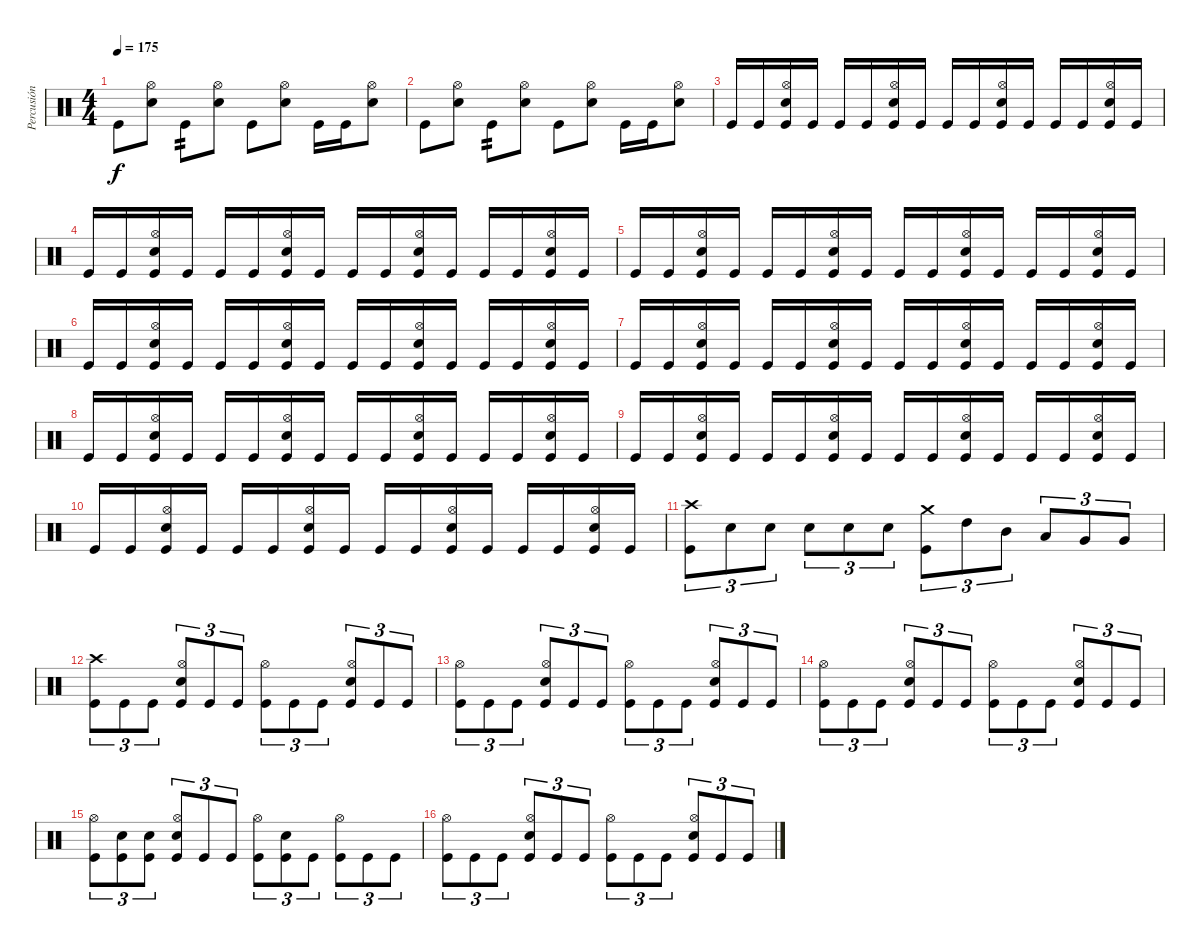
\track ("Percusión" "Percusión") {instrument percussion}
\staff {score}
\articulation defaults
\ts (4 4)
\tempo 175
\clef neutral
\ks c "Kick (hit)".8{dy f}
("Hi-Hat (open)" "Snare (hit) 2").8 "Kick (hit)".8{tp 2} ("Hi-Hat (open)" "Snare (hit) 2").8 "Kick (hit)".8 ("Hi-Hat (open)" "Snare (hit) 2").8 "Kick (hit)".16 "Kick (hit)".16 ("Hi-Hat (open)" "Snare (hit) 2").8 |
"Kick (hit)".8 ("Hi-Hat (open)" "Snare (hit) 2").8 "Kick (hit)".8{tp 2} ("Hi-Hat (open)" "Snare (hit) 2").8 "Kick (hit)".8 ("Hi-Hat (open)" "Snare (hit) 2").8 "Kick (hit)".16 "Kick (hit)".16 ("Hi-Hat (open)" "Snare (hit) 2").8 |
"Kick (hit)".16 "Kick (hit)".16 ("Hi-Hat (open)" "Snare (hit) 2" "Kick (hit)").16 "Kick (hit)".16 "Kick (hit)".16 "Kick (hit)".16 ("Hi-Hat (open)" "Snare (hit) 2" "Kick (hit)").16 "Kick (hit)".16 "Kick (hit)".16 "Kick (hit)".16 ("Hi-Hat (open)" "Snare (hit) 2" "Kick (hit)").16 "Kick (hit)".16 "Kick (hit)".16 "Kick (hit)".16 ("Hi-Hat (open)" "Snare (hit) 2" "Kick (hit)").16 "Kick (hit)".16 |
"Kick (hit)".16 "Kick (hit)".16 ("Hi-Hat (open)" "Snare (hit) 2" "Kick (hit)").16 "Kick (hit)".16 "Kick (hit)".16 "Kick (hit)".16 ("Hi-Hat (open)" "Snare (hit) 2" "Kick (hit)").16 "Kick (hit)".16 "Kick (hit)".16 "Kick (hit)".16 ("Hi-Hat (open)" "Snare (hit) 2" "Kick (hit)").16 "Kick (hit)".16 "Kick (hit)".16 "Kick (hit)".16 ("Hi-Hat (open)" "Snare (hit) 2" "Kick (hit)").16 "Kick (hit)".16 |
"Kick (hit)".16 "Kick (hit)".16 ("Hi-Hat (open)" "Snare (hit) 2" "Kick (hit)").16 "Kick (hit)".16 "Kick (hit)".16 "Kick (hit)".16 ("Hi-Hat (open)" "Snare (hit) 2" "Kick (hit)").16 "Kick (hit)".16 "Kick (hit)".16 "Kick (hit)".16 ("Hi-Hat (open)" "Snare (hit) 2" "Kick (hit)").16 "Kick (hit)".16 "Kick (hit)".16 "Kick (hit)".16 ("Hi-Hat (open)" "Snare (hit) 2" "Kick (hit)").16 "Kick (hit)".16 |
"Kick (hit)".16 "Kick (hit)".16 ("Hi-Hat (open)" "Snare (hit) 2" "Kick (hit)").16 "Kick (hit)".16 "Kick (hit)".16 "Kick (hit)".16 ("Hi-Hat (open)" "Snare (hit) 2" "Kick (hit)").16 "Kick (hit)".16 "Kick (hit)".16 "Kick (hit)".16 ("Hi-Hat (open)" "Snare (hit) 2" "Kick (hit)").16 "Kick (hit)".16 "Kick (hit)".16 "Kick (hit)".16 ("Hi-Hat (open)" "Snare (hit) 2" "Kick (hit)").16 "Kick (hit)".16 |
"Kick (hit)".16 "Kick (hit)".16 ("Hi-Hat (open)" "Snare (hit) 2" "Kick (hit)").16 "Kick (hit)".16 "Kick (hit)".16 "Kick (hit)".16 ("Hi-Hat (open)" "Snare (hit) 2" "Kick (hit)").16 "Kick (hit)".16 "Kick (hit)".16 "Kick (hit)".16 ("Hi-Hat (open)" "Snare (hit) 2" "Kick (hit)").16 "Kick (hit)".16 "Kick (hit)".16 "Kick (hit)".16 ("Hi-Hat (open)" "Snare (hit) 2" "Kick (hit)").16 "Kick (hit)".16 |
"Kick (hit)".16 "Kick (hit)".16 ("Hi-Hat (open)" "Snare (hit) 2" "Kick (hit)").16 "Kick (hit)".16 "Kick (hit)".16 "Kick (hit)".16 ("Hi-Hat (open)" "Snare (hit) 2" "Kick (hit)").16 "Kick (hit)".16 "Kick (hit)".16 "Kick (hit)".16 ("Hi-Hat (open)" "Snare (hit) 2" "Kick (hit)").16 "Kick (hit)".16 "Kick (hit)".16 "Kick (hit)".16 ("Hi-Hat (open)" "Snare (hit) 2" "Kick (hit)").16 "Kick (hit)".16 |
"Kick (hit)".16 "Kick (hit)".16 ("Hi-Hat (open)" "Snare (hit) 2" "Kick (hit)").16 "Kick (hit)".16 "Kick (hit)".16 "Kick (hit)".16 ("Hi-Hat (open)" "Snare (hit) 2" "Kick (hit)").16 "Kick (hit)".16 "Kick (hit)".16 "Kick (hit)".16 ("Hi-Hat (open)" "Snare (hit) 2" "Kick (hit)").16 "Kick (hit)".16 "Kick (hit)".16 "Kick (hit)".16 ("Hi-Hat (open)" "Snare (hit) 2" "Kick (hit)").16 "Kick (hit)".16 |
"Kick (hit)".16 "Kick (hit)".16 ("Hi-Hat (open)" "Snare (hit) 2" "Kick (hit)").16 "Kick (hit)".16 "Kick (hit)".16 "Kick (hit)".16 ("Hi-Hat (open)" "Snare (hit) 2" "Kick (hit)").16 "Kick (hit)".16 "Kick (hit)".16 "Kick (hit)".16 ("Hi-Hat (open)" "Snare (hit) 2" "Kick (hit)").16 "Kick (hit)".16 "Kick (hit)".16 "Kick (hit)".16 ("Hi-Hat (open)" "Snare (hit) 2" "Kick (hit)").16 "Kick (hit)".16 |
("Crash high (hit)" "Kick (hit)").8{tu (3 2)} "Snare (hit) 2".8{tu (3 2)} "Snare (hit) 2".8{tu (3 2)} "Snare (hit) 2".8{tu (3 2)} "Snare (hit) 2".8{tu (3 2)} "Snare (hit) 2".8{tu (3 2)} ("Crash medium (hit)" "Kick (hit)").8{tu (3 2)} "High Tom (hit)".8{tu (3 2)} "Mid Tom (hit)".8{tu (3 2)} "Low Tom (hit)".8{tu (3 2)} "Very Low Tom (hit)".8{tu (3 2)} "Very Low Tom (hit)".8{tu (3 2)} |
("Crash high (hit)" "Kick (hit)").8{tu (3 2)} "Kick (hit)".8{tu (3 2)} "Kick (hit)".8{tu (3 2)} ("Hi-Hat (open)" "Snare (hit) 2" "Kick (hit)").8{tu (3 2)} "Kick (hit)".8{tu (3 2)} "Kick (hit)".8{tu (3 2)} ("Hi-Hat (open)" "Kick (hit)").8{tu (3 2)} "Kick (hit)".8{tu (3 2)} "Kick (hit)".8{tu (3 2)} ("Hi-Hat (open)" "Snare (hit) 2" "Kick (hit)").8{tu (3 2)} "Kick (hit)".8{tu (3 2)} "Kick (hit)".8{tu (3 2)} |
("Hi-Hat (open)" "Kick (hit)").8{tu (3 2)} "Kick (hit)".8{tu (3 2)} "Kick (hit)".8{tu (3 2)} ("Hi-Hat (open)" "Snare (hit) 2" "Kick (hit)").8{tu (3 2)} "Kick (hit)".8{tu (3 2)} "Kick (hit)".8{tu (3 2)} ("Hi-Hat (open)" "Kick (hit)").8{tu (3 2)} "Kick (hit)".8{tu (3 2)} "Kick (hit)".8{tu (3 2)} ("Hi-Hat (open)" "Snare (hit) 2" "Kick (hit)").8{tu (3 2)} "Kick (hit)".8{tu (3 2)} "Kick (hit)".8{tu (3 2)} |
("Hi-Hat (open)" "Kick (hit)").8{tu (3 2)} "Kick (hit)".8{tu (3 2)} "Kick (hit)".8{tu (3 2)} ("Hi-Hat (open)" "Snare (hit) 2" "Kick (hit)").8{tu (3 2)} "Kick (hit)".8{tu (3 2)} "Kick (hit)".8{tu (3 2)} ("Hi-Hat (open)" "Kick (hit)").8{tu (3 2)} "Kick (hit)".8{tu (3 2)} "Kick (hit)".8{tu (3 2)} ("Hi-Hat (open)" "Snare (hit) 2" "Kick (hit)").8{tu (3 2)} "Kick (hit)".8{tu (3 2)} "Kick (hit)".8{tu (3 2)} |
("Hi-Hat (open)" "Kick (hit)").8{tu (3 2)} ("Snare (hit) 2" "Kick (hit)").8{tu (3 2)} ("Snare (hit) 2" "Kick (hit)").8{tu (3 2)} ("Hi-Hat (open)" "Snare (hit) 2" "Kick (hit)").8{tu (3 2)} "Kick (hit)".8{tu (3 2)} "Kick (hit)".8{tu (3 2)} ("Hi-Hat (open)" "Kick (hit)").8{tu (3 2)} ("Snare (hit) 2" "Kick (hit)").8{tu (3 2)} "Kick (hit)".8{tu (3 2)} ("Hi-Hat (open)" "Kick (hit)").8{tu (3 2)} "Kick (hit)".8{tu (3 2)} "Kick (hit)".8{tu (3 2)} |
("Hi-Hat (open)" "Kick (hit)").8{tu (3 2)} "Kick (hit)".8{tu (3 2)} "Kick (hit)".8{tu (3 2)} ("Hi-Hat (open)" "Snare (hit) 2" "Kick (hit)").8{tu (3 2)} "Kick (hit)".8{tu (3 2)} "Kick (hit)".8{tu (3 2)} ("Hi-Hat (open)" "Kick (hit)").8{tu (3 2)} "Kick (hit)".8{tu (3 2)} "Kick (hit)".8{tu (3 2)} ("Hi-Hat (open)" "Snare (hit) 2" "Kick (hit)").8{tu (3 2)} "Kick (hit)".8{tu (3 2)} "Kick (hit)".8{tu (3 2)}
